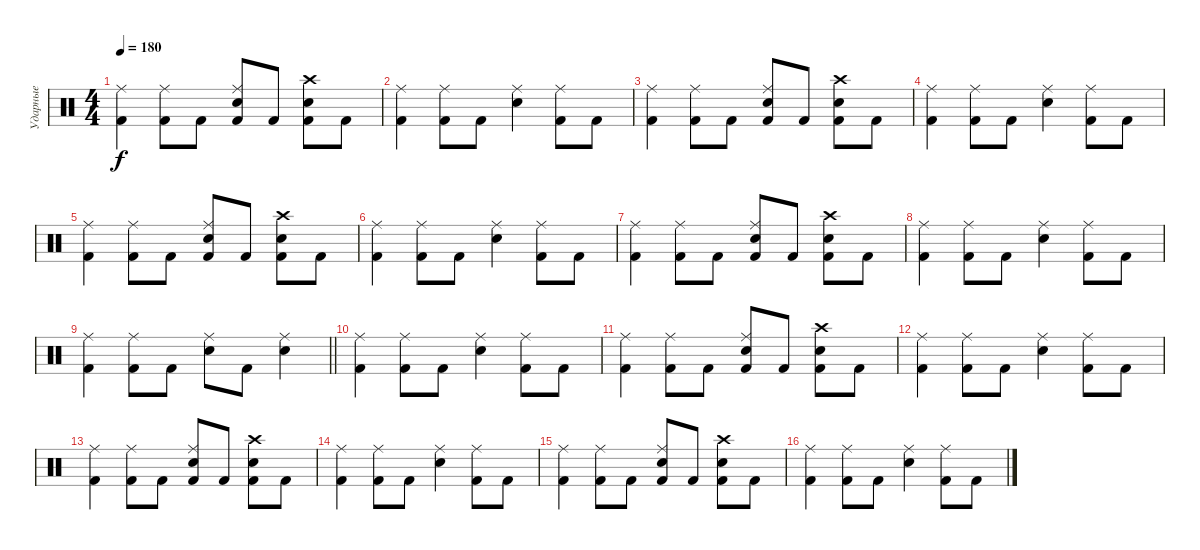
\track ("Ударные" "Ударные") {instrument percussion}
\staff {score}
\articulation defaults
\ts (4 4)
\tempo 180
\clef neutral
\ks c
("Kick (hit) 2" "Ride (middle)").4{dy f} ("Kick (hit) 2" "Ride (middle)").8 "Kick (hit) 2".8 ("Kick (hit) 2" "Snare (hit) 2" "Ride (middle)").8 "Kick (hit) 2".8 ("Kick (hit) 2" "Snare (hit) 2" "Crash high (hit)").8 "Kick (hit) 2".8 |
("Kick (hit) 2" "Ride (middle)").4 ("Kick (hit) 2" "Ride (middle)").8 "Kick (hit) 2".8 ("Snare (hit) 2" "Ride (middle)").4 ("Kick (hit) 2" "Ride (middle)").8 "Kick (hit) 2".8 |
("Kick (hit) 2" "Ride (middle)").4 ("Kick (hit) 2" "Ride (middle)").8 "Kick (hit) 2".8 ("Kick (hit) 2" "Snare (hit) 2" "Ride (middle)").8 "Kick (hit) 2".8 ("Kick (hit) 2" "Snare (hit) 2" "Crash high (hit)").8 "Kick (hit) 2".8 |
("Kick (hit) 2" "Ride (middle)").4 ("Kick (hit) 2" "Ride (middle)").8 "Kick (hit) 2".8 ("Snare (hit) 2" "Ride (middle)").4 ("Kick (hit) 2" "Ride (middle)").8 "Kick (hit) 2".8 |
("Kick (hit) 2" "Ride (middle)").4 ("Kick (hit) 2" "Ride (middle)").8 "Kick (hit) 2".8 ("Kick (hit) 2" "Snare (hit) 2" "Ride (middle)").8 "Kick (hit) 2".8 ("Kick (hit) 2" "Snare (hit) 2" "Crash high (hit)").8 "Kick (hit) 2".8 |
("Kick (hit) 2" "Ride (middle)").4 ("Kick (hit) 2" "Ride (middle)").8 "Kick (hit) 2".8 ("Snare (hit) 2" "Ride (middle)").4 ("Kick (hit) 2" "Ride (middle)").8 "Kick (hit) 2".8 |
("Kick (hit) 2" "Ride (middle)").4 ("Kick (hit) 2" "Ride (middle)").8 "Kick (hit) 2".8 ("Kick (hit) 2" "Snare (hit) 2" "Ride (middle)").8 "Kick (hit) 2".8 ("Kick (hit) 2" "Snare (hit) 2" "Crash high (hit)").8 "Kick (hit) 2".8 |
("Kick (hit) 2" "Ride (middle)").4 ("Kick (hit) 2" "Ride (middle)").8 "Kick (hit) 2".8 ("Snare (hit) 2" "Ride (middle)").4 ("Kick (hit) 2" "Ride (middle)").8 "Kick (hit) 2".8 |
\barLineRight lightlight
("Kick (hit) 2" "Ride (middle)").4 ("Kick (hit) 2" "Ride (middle)").8 "Kick (hit) 2".8 ("Snare (hit) 2" "Ride (middle)").8 "Kick (hit) 2".8 ("Snare (hit) 2" "Ride (middle)").4 |
("Kick (hit) 2" "Ride (middle)").4 ("Kick (hit) 2" "Ride (middle)").8 "Kick (hit) 2".8 ("Snare (hit) 2" "Ride (middle)").4 ("Kick (hit) 2" "Ride (middle)").8 "Kick (hit) 2".8 |
("Kick (hit) 2" "Ride (middle)").4 ("Kick (hit) 2" "Ride (middle)").8 "Kick (hit) 2".8 ("Kick (hit) 2" "Snare (hit) 2" "Ride (middle)").8 "Kick (hit) 2".8 ("Kick (hit) 2" "Snare (hit) 2" "Crash high (hit)").8 "Kick (hit) 2".8 |
("Kick (hit) 2" "Ride (middle)").4 ("Kick (hit) 2" "Ride (middle)").8 "Kick (hit) 2".8 ("Snare (hit) 2" "Ride (middle)").4 ("Kick (hit) 2" "Ride (middle)").8 "Kick (hit) 2".8 |
("Kick (hit) 2" "Ride (middle)").4 ("Kick (hit) 2" "Ride (middle)").8 "Kick (hit) 2".8 ("Kick (hit) 2" "Snare (hit) 2" "Ride (middle)").8 "Kick (hit) 2".8 ("Kick (hit) 2" "Snare (hit) 2" "Crash high (hit)").8 "Kick (hit) 2".8 |
("Kick (hit) 2" "Ride (middle)").4 ("Kick (hit) 2" "Ride (middle)").8 "Kick (hit) 2".8 ("Snare (hit) 2" "Ride (middle)").4 ("Kick (hit) 2" "Ride (middle)").8 "Kick (hit) 2".8 |
("Kick (hit) 2" "Ride (middle)").4 ("Kick (hit) 2" "Ride (middle)").8 "Kick (hit) 2".8 ("Kick (hit) 2" "Snare (hit) 2" "Ride (middle)").8 "Kick (hit) 2".8 ("Kick (hit) 2" "Snare (hit) 2" "Crash high (hit)").8 "Kick (hit) 2".8 |
("Kick (hit) 2" "Ride (middle)").4 ("Kick (hit) 2" "Ride (middle)").8 "Kick (hit) 2".8 ("Snare (hit) 2" "Ride (middle)").4 ("Kick (hit) 2" "Ride (middle)").8 "Kick (hit) 2".8
